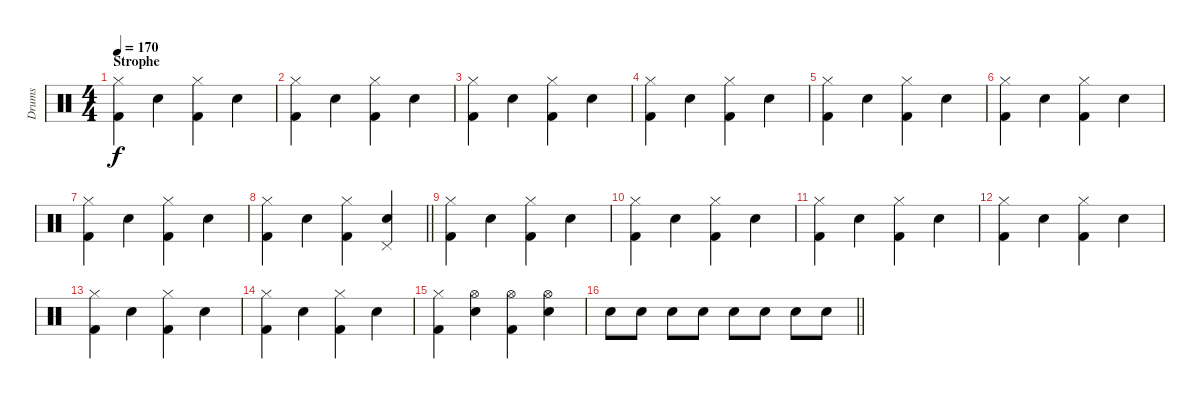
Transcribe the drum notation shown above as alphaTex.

\track ("Drums" "Drums") {instrument percussion}
\staff {score}
\articulation defaults
\ts (4 4)
\section ("" "Strophe")
\tempo 170
\clef neutral
\ks c
("Hi-Hat (closed)" "Kick (hit) 2").4{dy f} "Snare (hit) 2".4 ("Hi-Hat (closed)" "Kick (hit) 2").4 "Snare (hit) 2".4 |
("Hi-Hat (closed)" "Kick (hit) 2").4 "Snare (hit) 2".4 ("Hi-Hat (closed)" "Kick (hit) 2").4 "Snare (hit) 2".4 |
("Hi-Hat (closed)" "Kick (hit) 2").4 "Snare (hit) 2".4 ("Hi-Hat (closed)" "Kick (hit) 2").4 "Snare (hit) 2".4 |
("Hi-Hat (closed)" "Kick (hit) 2").4 "Snare (hit) 2".4 ("Hi-Hat (closed)" "Kick (hit) 2").4 "Snare (hit) 2".4 |
("Hi-Hat (closed)" "Kick (hit) 2").4 "Snare (hit) 2".4 ("Hi-Hat (closed)" "Kick (hit) 2").4 "Snare (hit) 2".4 |
("Hi-Hat (closed)" "Kick (hit) 2").4 "Snare (hit) 2".4 ("Hi-Hat (closed)" "Kick (hit) 2").4 "Snare (hit) 2".4 |
("Hi-Hat (closed)" "Kick (hit) 2").4 "Snare (hit) 2".4 ("Hi-Hat (closed)" "Kick (hit) 2").4 "Snare (hit) 2".4 |
\barLineRight lightlight
("Hi-Hat (closed)" "Kick (hit) 2").4 "Snare (hit) 2".4 ("Hi-Hat (closed)" "Kick (hit) 2").4 ("Pedal Hi-Hat (hit)" "Snare (hit) 2").4 |
("Hi-Hat (closed)" "Kick (hit) 2").4 "Snare (hit) 2".4 ("Hi-Hat (closed)" "Kick (hit) 2").4 "Snare (hit) 2".4 |
("Hi-Hat (closed)" "Kick (hit) 2").4 "Snare (hit) 2".4 ("Hi-Hat (closed)" "Kick (hit) 2").4 "Snare (hit) 2".4 |
("Hi-Hat (closed)" "Kick (hit) 2").4 "Snare (hit) 2".4 ("Hi-Hat (closed)" "Kick (hit) 2").4 "Snare (hit) 2".4 |
("Hi-Hat (closed)" "Kick (hit) 2").4 "Snare (hit) 2".4 ("Hi-Hat (closed)" "Kick (hit) 2").4 "Snare (hit) 2".4 |
("Hi-Hat (closed)" "Kick (hit) 2").4 "Snare (hit) 2".4 ("Hi-Hat (closed)" "Kick (hit) 2").4 "Snare (hit) 2".4 |
("Hi-Hat (closed)" "Kick (hit) 2").4 "Snare (hit) 2".4 ("Hi-Hat (closed)" "Kick (hit) 2").4 "Snare (hit) 2".4 |
("Hi-Hat (closed)" "Kick (hit) 2").4 ("Hi-Hat (open)" "Snare (hit) 2").4 ("Hi-Hat (open)" "Kick (hit) 2").4 ("Hi-Hat (open)" "Snare (hit) 2").4 |
\barLineRight lightlight "Snare (hit) 2".8 "Snare (hit) 2".8 "Snare (hit) 2".8 "Snare (hit) 2".8 "Snare (hit) 2".8 "Snare (hit) 2".8 "Snare (hit) 2".8 "Snare (hit) 2".8
